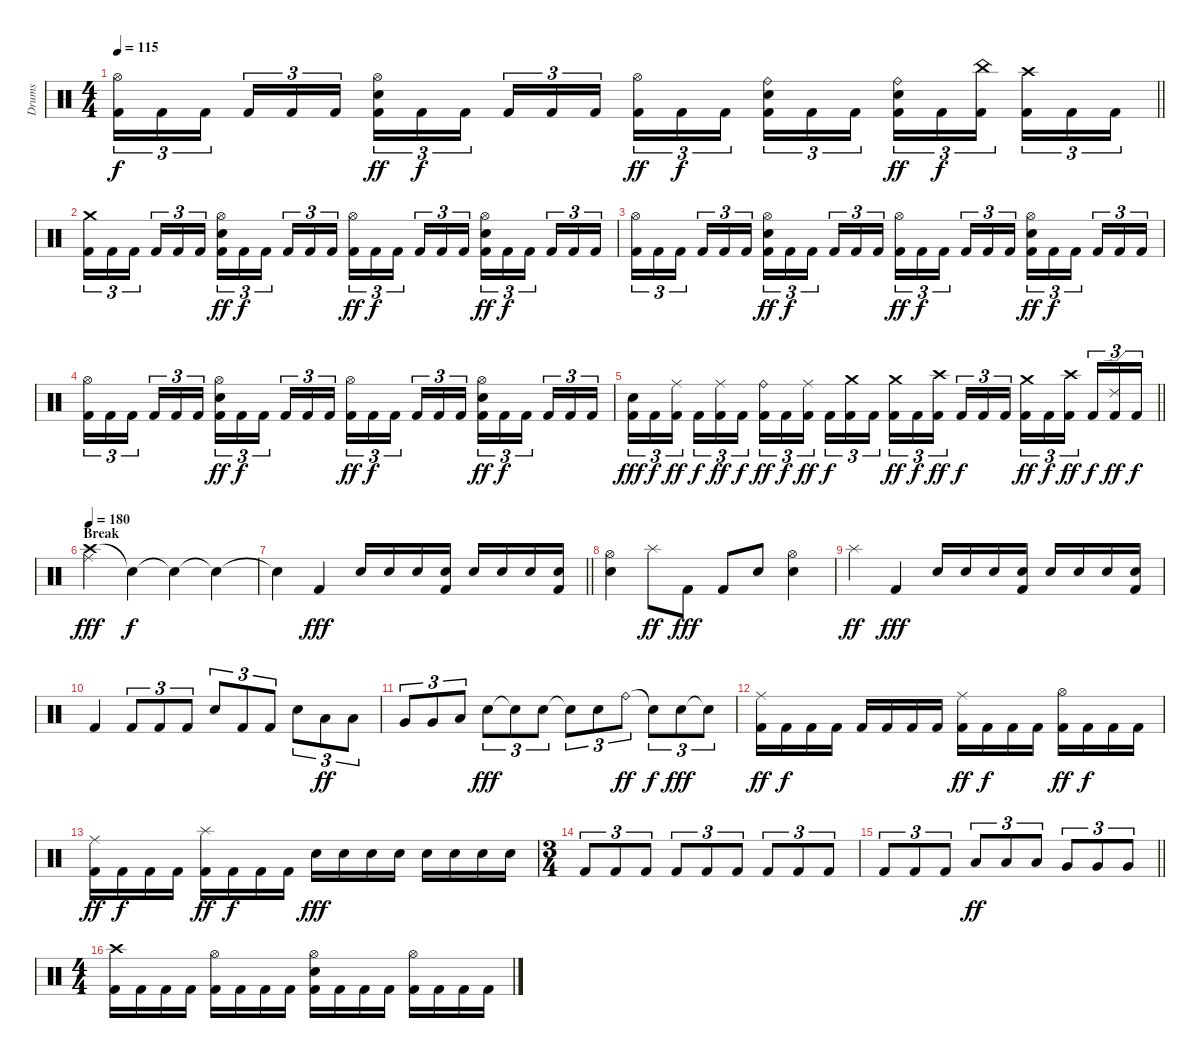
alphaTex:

\track ("Drums" "Drums") {instrument percussion}
\staff {score}
\articulation defaults
\ts (4 4)
\tempo 115
\clef neutral
\barLineRight lightlight
\ks c
("Hi-Hat (open)" "Kick (hit) 2").16{tu (3 2) dy f} "Kick (hit) 2".16{tu (3 2)} "Kick (hit) 2".16{tu (3 2) beam splitsecondary} "Kick (hit) 2".16{tu (3 2)} "Kick (hit) 2".16{tu (3 2)} "Kick (hit) 2".16{tu (3 2)} ("Hi-Hat (open)" "Electric Snare (hit)" "Kick (hit) 2").16{tu (3 2) dy ff} "Kick (hit) 2".16{tu (3 2) dy f} "Kick (hit) 2".16{tu (3 2) beam splitsecondary} "Kick (hit) 2".16{tu (3 2)} "Kick (hit) 2".16{tu (3 2)} "Kick (hit) 2".16{tu (3 2)} ("Hi-Hat (open)" "Kick (hit) 2").16{tu (3 2) dy ff} "Kick (hit) 2".16{tu (3 2) dy f} "Kick (hit) 2".16{tu (3 2) beam splitsecondary} ("Ride (bell)" "Electric Snare (hit)" "Kick (hit) 2").16{tu (3 2)} "Kick (hit) 2".16{tu (3 2)} "Kick (hit) 2".16{tu (3 2)} ("Ride (bell)" "Electric Snare (hit)" "Kick (hit) 2").16{tu (3 2) dy ff} "Kick (hit) 2".16{tu (3 2) dy f} ("China (hit)" "Kick (hit) 2").16{tu (3 2) beam splitsecondary} ("Crash high (hit)" "Kick (hit) 2").16{tu (3 2)} "Kick (hit) 2".16{tu (3 2)} "Kick (hit) 2".16{tu (3 2)} |
("Crash medium (hit)" "Kick (hit) 2").16{tu (3 2)} "Kick (hit) 2".16{tu (3 2)} "Kick (hit) 2".16{tu (3 2) beam splitsecondary} "Kick (hit) 2".16{tu (3 2)} "Kick (hit) 2".16{tu (3 2)} "Kick (hit) 2".16{tu (3 2)} ("Hi-Hat (open)" "Electric Snare (hit)" "Kick (hit) 2").16{tu (3 2) dy ff} "Kick (hit) 2".16{tu (3 2) dy f} "Kick (hit) 2".16{tu (3 2) beam splitsecondary} "Kick (hit) 2".16{tu (3 2)} "Kick (hit) 2".16{tu (3 2)} "Kick (hit) 2".16{tu (3 2)} ("Hi-Hat (open)" "Kick (hit) 2").16{tu (3 2) dy ff} "Kick (hit) 2".16{tu (3 2) dy f} "Kick (hit) 2".16{tu (3 2) beam splitsecondary} "Kick (hit) 2".16{tu (3 2)} "Kick (hit) 2".16{tu (3 2)} "Kick (hit) 2".16{tu (3 2)} ("Hi-Hat (open)" "Electric Snare (hit)" "Kick (hit) 2").16{tu (3 2) dy ff} "Kick (hit) 2".16{tu (3 2) dy f} "Kick (hit) 2".16{tu (3 2) beam splitsecondary} "Kick (hit) 2".16{tu (3 2)} "Kick (hit) 2".16{tu (3 2)} "Kick (hit) 2".16{tu (3 2)} |
("Hi-Hat (open)" "Kick (hit) 2").16{tu (3 2)} "Kick (hit) 2".16{tu (3 2)} "Kick (hit) 2".16{tu (3 2) beam splitsecondary} "Kick (hit) 2".16{tu (3 2)} "Kick (hit) 2".16{tu (3 2)} "Kick (hit) 2".16{tu (3 2)} ("Hi-Hat (open)" "Electric Snare (hit)" "Kick (hit) 2").16{tu (3 2) dy ff} "Kick (hit) 2".16{tu (3 2) dy f} "Kick (hit) 2".16{tu (3 2) beam splitsecondary} "Kick (hit) 2".16{tu (3 2)} "Kick (hit) 2".16{tu (3 2)} "Kick (hit) 2".16{tu (3 2)} ("Hi-Hat (open)" "Kick (hit) 2").16{tu (3 2) dy ff} "Kick (hit) 2".16{tu (3 2) dy f} "Kick (hit) 2".16{tu (3 2) beam splitsecondary} "Kick (hit) 2".16{tu (3 2)} "Kick (hit) 2".16{tu (3 2)} "Kick (hit) 2".16{tu (3 2)} ("Hi-Hat (open)" "Electric Snare (hit)" "Kick (hit) 2").16{tu (3 2) dy ff} "Kick (hit) 2".16{tu (3 2) dy f} "Kick (hit) 2".16{tu (3 2) beam splitsecondary} "Kick (hit) 2".16{tu (3 2)} "Kick (hit) 2".16{tu (3 2)} "Kick (hit) 2".16{tu (3 2)} |
("Hi-Hat (open)" "Kick (hit) 2").16{tu (3 2)} "Kick (hit) 2".16{tu (3 2)} "Kick (hit) 2".16{tu (3 2) beam splitsecondary} "Kick (hit) 2".16{tu (3 2)} "Kick (hit) 2".16{tu (3 2)} "Kick (hit) 2".16{tu (3 2)} ("Hi-Hat (open)" "Electric Snare (hit)" "Kick (hit) 2").16{tu (3 2) dy ff} "Kick (hit) 2".16{tu (3 2) dy f} "Kick (hit) 2".16{tu (3 2) beam splitsecondary} "Kick (hit) 2".16{tu (3 2)} "Kick (hit) 2".16{tu (3 2)} "Kick (hit) 2".16{tu (3 2)} ("Hi-Hat (open)" "Kick (hit) 2").16{tu (3 2) dy ff} "Kick (hit) 2".16{tu (3 2) dy f} "Kick (hit) 2".16{tu (3 2) beam splitsecondary} "Kick (hit) 2".16{tu (3 2)} "Kick (hit) 2".16{tu (3 2)} "Kick (hit) 2".16{tu (3 2)} ("Hi-Hat (open)" "Electric Snare (hit)" "Kick (hit) 2").16{tu (3 2) dy ff} "Kick (hit) 2".16{tu (3 2) dy f} "Kick (hit) 2".16{tu (3 2) beam splitsecondary} "Kick (hit) 2".16{tu (3 2)} "Kick (hit) 2".16{tu (3 2)} "Kick (hit) 2".16{tu (3 2)} |
\barLineRight lightlight
("Electric Snare (hit)" "Kick (hit) 2").16{tu (3 2) dy fff} "Kick (hit) 2".16{tu (3 2) dy f} ("Ride (middle)" "Kick (hit) 2").16{tu (3 2) dy ff beam splitsecondary} "Kick (hit) 2".16{tu (3 2) dy f} ("Ride (middle)" "Kick (hit) 2").16{tu (3 2) dy ff} "Kick (hit) 2".16{tu (3 2) dy f} ("Ride (bell)" "Kick (hit) 2").16{tu (3 2) dy ff} "Kick (hit) 2".16{tu (3 2) dy f} ("Ride (middle)" "Kick (hit) 2").16{tu (3 2) dy ff beam splitsecondary} "Kick (hit) 2".16{tu (3 2) dy f} ("Crash medium (hit)" "Kick (hit) 2").16{tu (3 2)} "Kick (hit) 2".16{tu (3 2)} ("Crash medium (hit)" "Kick (hit) 2").16{tu (3 2) dy ff} "Kick (hit) 2".16{tu (3 2) dy f} ("Crash high (hit)" "Kick (hit) 2").16{tu (3 2) dy ff beam splitsecondary} "Kick (hit) 2".16{tu (3 2) dy f} "Kick (hit) 2".16{tu (3 2)} "Kick (hit) 2".16{tu (3 2)} ("Crash medium (hit)" "Kick (hit) 2").16{tu (3 2) dy ff} "Kick (hit) 2".16{tu (3 2) dy f} ("Crash high (hit)" "Kick (hit) 2").16{tu (3 2) dy ff beam splitsecondary} "Kick (hit) 2".16{tu (3 2) dy f} ("Ride (edge) 2" "Kick (hit) 2").16{tu (3 2) dy ff} "Kick (hit) 2".16{tu (3 2) dy f} |
\section ("" "Break")
\tempo 180
("Crash high (hit)" "Ride (middle)").4{dy fff} "Snare (hit)"{t}.4{dy f} "Snare (hit)"{t}.4 "Snare (hit)"{t}.4 |
\barLineRight lightlight "Snare (hit)"{t}.4 "Kick (hit) 2".4{dy fff} "Electric Snare (hit)".16 "Electric Snare (hit)".16 "Electric Snare (hit)".16
("Electric Snare (hit)" "Kick (hit) 2").16 "Electric Snare (hit)".16 "Electric Snare (hit)".16 "Electric Snare (hit)".16 ("Electric Snare (hit)" "Kick (hit) 2").16 |
("Hi-Hat (open)" "Electric Snare (hit)").4 "Splash (hit)".8{dy ff} "Kick (hit) 2".8{dy fff} "Kick (hit) 2".8 "Electric Snare (hit)".8 ("Hi-Hat (open)" "Electric Snare (hit)").4 |
"Splash (hit)".4{dy ff} "Kick (hit) 2".4{dy fff} "Electric Snare (hit)".16 "Electric Snare (hit)".16 "Electric Snare (hit)".16 ("Electric Snare (hit)" "Kick (hit) 2").16 "Electric Snare (hit)".16 "Electric Snare (hit)".16 "Electric Snare (hit)".16 ("Electric Snare (hit)" "Kick (hit) 2").16 |
"Kick (hit) 2".4 "Kick (hit) 2".8{tu (3 2)} "Kick (hit) 2".8{tu (3 2)} "Kick (hit) 2".8{tu (3 2)} "Electric Snare (hit)".8{tu (3 2)} "Kick (hit) 2".8{tu (3 2)} "Kick (hit) 2".8{tu (3 2)} "Electric Snare (hit)".8{tu (3 2)} "Low Tom (hit)".8{tu (3 2) dy ff} "Low Tom (hit)".8{tu (3 2)} |
"Very Low Tom (hit)".8{tu (3 2)} "Very Low Tom (hit)".8{tu (3 2)} "Low Floor Tom (hit)".8{tu (3 2)} "Electric Snare (hit)".8{tu (3 2) dy fff} "Snare (hit)"{t}.8{tu (3 2)} "Electric Snare (hit)".8{tu (3 2)} "Snare (hit)"{t}.8{tu (3 2)} "Electric Snare (hit)".8{tu (3 2)} "Ride (bell)".8{tu (3 2) dy ff} "Snare (hit)"{t}.8{tu (3 2) dy f} "Electric Snare (hit)".8{tu (3 2) dy fff} "Snare (hit)"{t}.8{tu (3 2)} |
("Ride (middle)" "Kick (hit) 2").16{dy ff} "Kick (hit) 2".16{dy f} "Kick (hit) 2".16 "Kick (hit) 2".16 "Kick (hit) 2".16 "Kick (hit) 2".16 "Kick (hit) 2".16 "Kick (hit) 2".16 ("Ride (middle)" "Kick (hit) 2").16{dy ff} "Kick (hit) 2".16{dy f} "Kick (hit) 2".16 "Kick (hit) 2".16 ("Hi-Hat (open)" "Kick (hit) 2").16{dy ff} "Kick (hit) 2".16{dy f} "Kick (hit) 2".16 "Kick (hit) 2".16 |
("Ride (middle)" "Kick (hit) 2").16{dy ff} "Kick (hit) 2".16{dy f} "Kick (hit) 2".16 "Kick (hit) 2".16 ("Splash (hit)" "Kick (hit) 2").16{dy ff} "Kick (hit) 2".16{dy f} "Kick (hit) 2".16 "Kick (hit) 2".16 "Electric Snare (hit)".16{dy fff} "Electric Snare (hit)".16 "Electric Snare (hit)".16 "Electric Snare (hit)".16 "Electric Snare (hit)".16 "Electric Snare (hit)".16 "Electric Snare (hit)".16 "Electric Snare (hit)".16 |
\ts (3 4)
"Kick (hit) 2".8{tu (3 2)} "Kick (hit) 2".8{tu (3 2)} "Kick (hit) 2".8{tu (3 2)} "Kick (hit) 2".8{tu (3 2)} "Kick (hit) 2".8{tu (3 2)} "Kick (hit) 2".8{tu (3 2)} "Kick (hit) 2".8{tu (3 2)} "Kick (hit) 2".8{tu (3 2)} "Kick (hit) 2".8{tu (3 2)} |
\barLineRight lightlight "Kick (hit) 2".8{tu (3 2)} "Kick (hit) 2".8{tu (3 2)} "Kick (hit) 2".8{tu (3 2)} "Low Floor Tom (hit)".8{tu (3 2) dy ff} "Low Floor Tom (hit)".8{tu (3 2)} "Low Floor Tom (hit)".8{tu (3 2)} "Very Low Tom (hit)".8{tu (3 2)} "Very Low Tom (hit)".8{tu (3 2)} "Very Low Tom (hit)".8{tu (3 2)}
|
\ts (4 4)
("Crash high (hit)" "Kick (hit) 2").16 "Kick (hit) 2".16 "Kick (hit) 2".16 "Kick (hit) 2".16 ("Hi-Hat (open)" "Kick (hit) 2").16 "Kick (hit) 2".16 "Kick (hit) 2".16 "Kick (hit) 2".16 ("Hi-Hat (open)" "Electric Snare (hit)" "Kick (hit) 2").16 "Kick (hit) 2".16 "Kick (hit) 2".16 "Kick (hit) 2".16 ("Hi-Hat (open)" "Kick (hit) 2").16 "Kick (hit) 2".16 "Kick (hit) 2".16 "Kick (hit) 2".16
